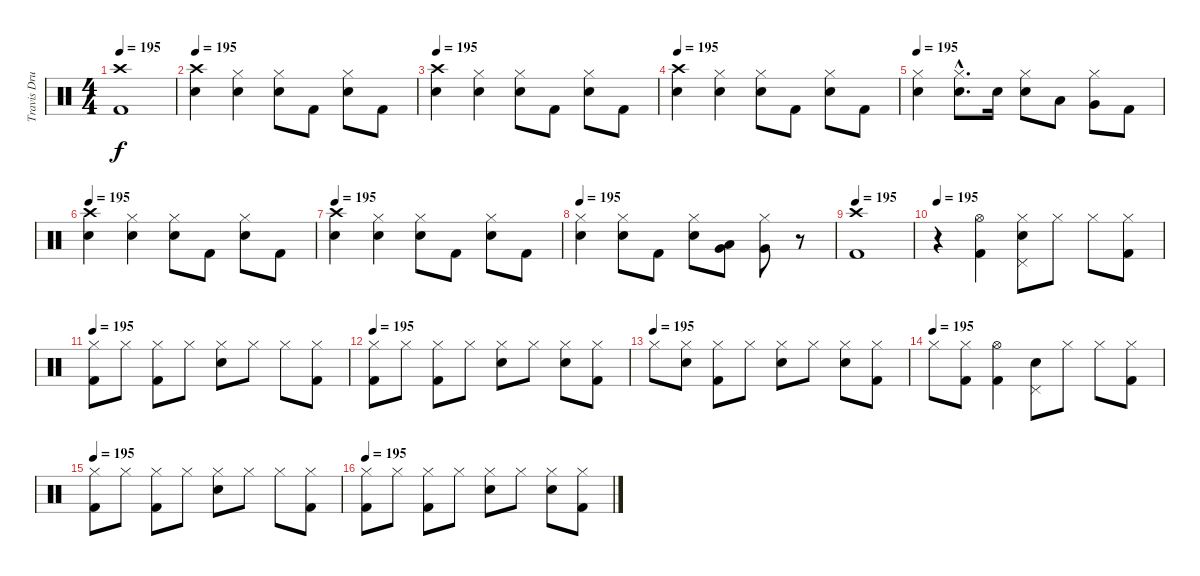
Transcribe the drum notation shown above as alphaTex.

\track ("Travis Drums" "Travis Dru") {instrument percussion}
\staff {score}
\articulation defaults
\ts (4 4)
\tempo 195
\clef neutral
\ks c
("Crash high (hit)" "Kick (hit) 2").1{dy f} |
\tempo 195
("Crash high (hit)" "Electric Snare (hit)").4 ("Hi-Hat (closed)" "Electric Snare (hit)").4 ("Hi-Hat (closed)" "Electric Snare (hit)").8 "Kick (hit) 2".8 ("Hi-Hat (closed)" "Electric Snare (hit)").8 "Kick (hit) 2".8 |
\tempo 195
("Crash high (hit)" "Electric Snare (hit)").4 ("Hi-Hat (closed)" "Electric Snare (hit)").4 ("Hi-Hat (closed)" "Electric Snare (hit)").8 "Kick (hit) 2".8 ("Hi-Hat (closed)" "Electric Snare (hit)").8 "Kick (hit) 2".8 |
\tempo 195
("Crash high (hit)" "Electric Snare (hit)").4 ("Hi-Hat (closed)" "Electric Snare (hit)").4 ("Hi-Hat (closed)" "Electric Snare (hit)").8 "Kick (hit) 2".8 ("Hi-Hat (closed)" "Electric Snare (hit)").8 "Kick (hit) 2".8 |
\tempo 195
("Hi-Hat (closed)" "Electric Snare (hit)").4 ("Hi-Hat (closed)"{hac} "Electric Snare (hit)"{hac}).8{d} "Electric Snare (hit)".16 ("Hi-Hat (closed)" "Electric Snare (hit)").8 "Low Tom (hit)".8 ("Very Low Tom (hit)" "Hi-Hat (closed)").8 "Kick (hit) 2".8 |
\tempo 195
("Crash high (hit)" "Electric Snare (hit)").4 ("Hi-Hat (closed)" "Electric Snare (hit)").4 ("Hi-Hat (closed)" "Electric Snare (hit)").8 "Kick (hit) 2".8 ("Hi-Hat (closed)" "Electric Snare (hit)").8 "Kick (hit) 2".8 |
\tempo 195
("Crash high (hit)" "Electric Snare (hit)").4 ("Hi-Hat (closed)" "Electric Snare (hit)").4 ("Hi-Hat (closed)" "Electric Snare (hit)").8 "Kick (hit) 2".8 ("Hi-Hat (closed)" "Electric Snare (hit)").8 "Kick (hit) 2".8 |
\tempo 195
("Hi-Hat (closed)" "Electric Snare (hit)").4 ("Hi-Hat (closed)" "Electric Snare (hit)").8 "Kick (hit) 2".8 ("Hi-Hat (closed)" "Electric Snare (hit)").8 ("Low Tom (hit)" "Very Low Tom (hit)").8 ("Very Low Tom (hit)" "Hi-Hat (closed)").8 r.8 |
\tempo 195
("Crash high (hit)" "Kick (hit) 2").1 |
\tempo 195
r.4 ("Hi-Hat (open)" "Kick (hit) 2").4 ("Pedal Hi-Hat (hit)" "Hi-Hat (closed)" "Electric Snare (hit)").8 "Hi-Hat (closed)".8 "Hi-Hat (closed)".8 ("Hi-Hat (closed)" "Kick (hit) 2").8 |
\tempo 195
("Hi-Hat (closed)" "Kick (hit) 2").8 "Hi-Hat (closed)".8 ("Hi-Hat (closed)" "Kick (hit) 2").8 "Hi-Hat (closed)".8 ("Hi-Hat (closed)" "Electric Snare (hit)").8 "Hi-Hat (closed)".8 "Hi-Hat (closed)".8 ("Hi-Hat (closed)" "Kick (hit) 2").8 |
\tempo 195
("Hi-Hat (closed)" "Kick (hit) 2").8 "Hi-Hat (closed)".8 ("Hi-Hat (closed)" "Kick (hit) 2").8 "Hi-Hat (closed)".8 ("Hi-Hat (closed)" "Electric Snare (hit)").8 "Hi-Hat (closed)".8 ("Hi-Hat (closed)" "Electric Snare (hit)").8 ("Hi-Hat (closed)" "Kick (hit) 2").8 |
\tempo (195)
"Hi-Hat (closed)".8 ("Hi-Hat (closed)" "Electric Snare (hit)").8 ("Hi-Hat (closed)" "Kick (hit) 2").8 "Hi-Hat (closed)".8 ("Hi-Hat (closed)" "Electric Snare (hit)").8 "Hi-Hat (closed)".8 ("Hi-Hat (closed)" "Electric Snare (hit)").8 ("Hi-Hat (closed)" "Kick (hit) 2").8 |
\tempo (195)
"Hi-Hat (closed)".8 ("Hi-Hat (closed)" "Kick (hit) 2").8 ("Hi-Hat (open)" "Kick (hit) 2").4 ("Pedal Hi-Hat (hit)" "Electric Snare (hit)").8 "Hi-Hat (closed)".8 "Hi-Hat (closed)".8 ("Hi-Hat (closed)" "Kick (hit) 2").8 |
\tempo 195
("Hi-Hat (closed)" "Kick (hit) 2").8 "Hi-Hat (closed)".8 ("Hi-Hat (closed)" "Kick (hit) 2").8 "Hi-Hat (closed)".8 ("Hi-Hat (closed)" "Electric Snare (hit)").8 "Hi-Hat (closed)".8 "Hi-Hat (closed)".8 ("Hi-Hat (closed)" "Kick (hit) 2").8 |
\tempo 195
("Hi-Hat (closed)" "Kick (hit) 2").8 "Hi-Hat (closed)".8 ("Hi-Hat (closed)" "Kick (hit) 2").8 "Hi-Hat (closed)".8 ("Hi-Hat (closed)" "Electric Snare (hit)").8 "Hi-Hat (closed)".8 ("Hi-Hat (closed)" "Electric Snare (hit)").8 ("Hi-Hat (closed)" "Kick (hit) 2").8
